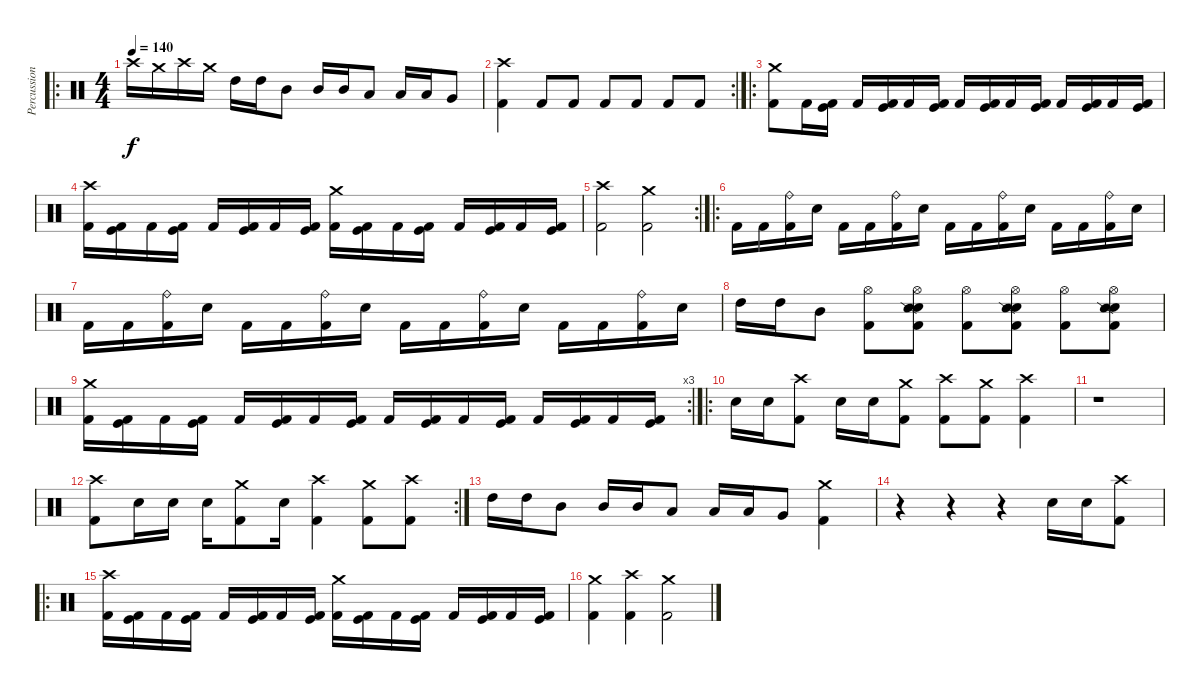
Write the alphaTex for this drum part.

\track ("Percussion" "Percussion") {instrument percussion}
\staff {score}
\articulation defaults
\ro
\ts (4 4)
\tempo 140
\clef neutral
\ks c "Crash high (hit)".16{dy f} "Crash medium (hit)".16 "Crash high (hit)".16 "Crash medium (hit)".16 "High Tom (hit)".16 "High Tom (hit)".16 "Mid Tom (hit)".8 "Mid Tom (hit)".16 "Mid Tom (hit)".16 "Low Tom (hit)".8 "Low Tom (hit)".16 "Low Tom (hit)".16 "Very Low Tom (hit)".8
|
\rc 2
("Crash high (hit)" "Kick (hit) 2").4 "Kick (hit) 2".8 "Kick (hit) 2".8 "Kick (hit) 2".8 "Kick (hit) 2".8 "Kick (hit) 2".8 "Kick (hit) 2".8 |
\ro
("Crash medium (hit)" "Kick (hit) 2").8 "Kick (hit) 2".16 ("Kick (hit)" "Kick (hit) 2").16 "Kick (hit) 2".16 ("Kick (hit)" "Kick (hit) 2").16 "Kick (hit) 2".16 ("Kick (hit)" "Kick (hit) 2").16 "Kick (hit) 2".16 ("Kick (hit)" "Kick (hit) 2").16 "Kick (hit) 2".16 ("Kick (hit)" "Kick (hit) 2").16 "Kick (hit) 2".16 ("Kick (hit)" "Kick (hit) 2").16 "Kick (hit) 2".16 ("Kick (hit)" "Kick (hit) 2").16 |
("Crash high (hit)" "Kick (hit) 2").16 ("Kick (hit)" "Kick (hit) 2").16 "Kick (hit) 2".16 ("Kick (hit)" "Kick (hit) 2").16 "Kick (hit) 2".16 ("Kick (hit)" "Kick (hit) 2").16 "Kick (hit) 2".16 ("Kick (hit)" "Kick (hit) 2").16 ("Crash medium (hit)" "Kick (hit) 2").16 ("Kick (hit)" "Kick (hit) 2").16 "Kick (hit) 2".16 ("Kick (hit)" "Kick (hit) 2").16 "Kick (hit) 2".16 ("Kick (hit)" "Kick (hit) 2").16 "Kick (hit) 2".16 ("Kick (hit)" "Kick (hit) 2").16 |
\rc 2
("Crash high (hit)" "Kick (hit) 2").2 ("Crash medium (hit)" "Kick (hit) 2").2 |
\ro "Kick (hit) 2".16 "Kick (hit) 2".16
("Ride (bell)" "Kick (hit) 2").16 "Electric Snare (hit)".16 "Kick (hit) 2".16 "Kick (hit) 2".16 ("Ride (bell)" "Kick (hit) 2").16 "Electric Snare (hit)".16 "Kick (hit) 2".16 "Kick (hit) 2".16 ("Ride (bell)" "Kick (hit) 2").16 "Electric Snare (hit)".16 "Kick (hit) 2".16 "Kick (hit) 2".16 ("Ride (bell)" "Kick (hit) 2").16 "Electric Snare (hit)".16 |
"Kick (hit) 2".16 "Kick (hit) 2".16 ("Ride (bell)" "Kick (hit) 2").16 "Electric Snare (hit)".16 "Kick (hit) 2".16 "Kick (hit) 2".16 ("Ride (bell)" "Kick (hit) 2").16 "Electric Snare (hit)".16 "Kick (hit) 2".16 "Kick (hit) 2".16 ("Ride (bell)" "Kick (hit) 2").16 "Electric Snare (hit)".16 "Kick (hit) 2".16 "Kick (hit) 2".16 ("Ride (bell)" "Kick (hit) 2").16 "Electric Snare (hit)".16 |
"High Tom (hit)".16 "High Tom (hit)".16 "Mid Tom (hit)".8 ("Hi-Hat (open)" "Kick (hit) 2").8 ("Hi-Hat (open)" "Electric Snare (hit)" "Snare (side stick) 2" "Kick (hit) 2").8 ("Hi-Hat (open)" "Kick (hit) 2").8 ("Hi-Hat (open)" "Electric Snare (hit)" "Snare (side stick) 2" "Kick (hit) 2").8 ("Hi-Hat (open)" "Kick (hit) 2").8 ("Hi-Hat (open)" "Electric Snare (hit)" "Snare (side stick) 2" "Kick (hit) 2").8 |
\rc 3
("Crash medium (hit)" "Kick (hit) 2").16 ("Kick (hit)" "Kick (hit) 2").16 "Kick (hit) 2".16 ("Kick (hit)" "Kick (hit) 2").16 "Kick (hit) 2".16 ("Kick (hit)" "Kick (hit) 2").16 "Kick (hit) 2".16 ("Kick (hit)" "Kick (hit) 2").16 "Kick (hit) 2".16 ("Kick (hit)" "Kick (hit) 2").16 "Kick (hit) 2".16 ("Kick (hit)" "Kick (hit) 2").16 "Kick (hit) 2".16 ("Kick (hit)" "Kick (hit) 2").16 "Kick (hit) 2".16 ("Kick (hit)" "Kick (hit) 2").16 |
\ro "Electric Snare (hit)".16 "Electric Snare (hit)".16
("Crash high (hit)" "Kick (hit) 2").8 "Electric Snare (hit)".16 "Electric Snare (hit)".16 ("Crash medium (hit)" "Kick (hit) 2").8 ("Crash high (hit)" "Kick (hit) 2").8 ("Crash medium (hit)" "Kick (hit) 2").8 ("Crash high (hit)" "Kick (hit) 2").4 |
r.1 |
\rc 2
("Crash high (hit)" "Kick (hit) 2").8 "Electric Snare (hit)".16 "Electric Snare (hit)".16 "Electric Snare (hit)".16 ("Crash medium (hit)" "Kick (hit) 2").8 "Electric Snare (hit)".16 ("Crash high (hit)" "Kick (hit) 2").4 ("Crash medium (hit)" "Kick (hit) 2").8 ("Crash high (hit)" "Kick (hit) 2").8 |
"High Tom (hit)".16 "High Tom (hit)".16 "Mid Tom (hit)".8 "Mid Tom (hit)".16 "Mid Tom (hit)".16 "Low Tom (hit)".8 "Low Tom (hit)".16 "Low Tom (hit)".16 "Very Low Tom (hit)".8 ("Crash medium (hit)" "Kick (hit) 2").4 |
r.4 r.4 r.4 "Electric Snare (hit)".16 "Electric Snare (hit)".16 ("Crash high (hit)" "Kick (hit) 2").8 |
\ro
("Crash high (hit)" "Kick (hit) 2").16 ("Kick (hit)" "Kick (hit) 2").16 "Kick (hit) 2".16 ("Kick (hit)" "Kick (hit) 2").16 "Kick (hit) 2".16 ("Kick (hit)" "Kick (hit) 2").16 "Kick (hit) 2".16 ("Kick (hit)" "Kick (hit) 2").16 ("Crash medium (hit)" "Kick (hit) 2").16 ("Kick (hit)" "Kick (hit) 2").16 "Kick (hit) 2".16 ("Kick (hit)" "Kick (hit) 2").16 "Kick (hit) 2".16 ("Kick (hit)" "Kick (hit) 2").16 "Kick (hit) 2".16 ("Kick (hit)" "Kick (hit) 2").16 |
("Crash medium (hit)" "Kick (hit) 2").4 ("Crash high (hit)" "Kick (hit) 2").4 ("Crash medium (hit)" "Kick (hit) 2").2
